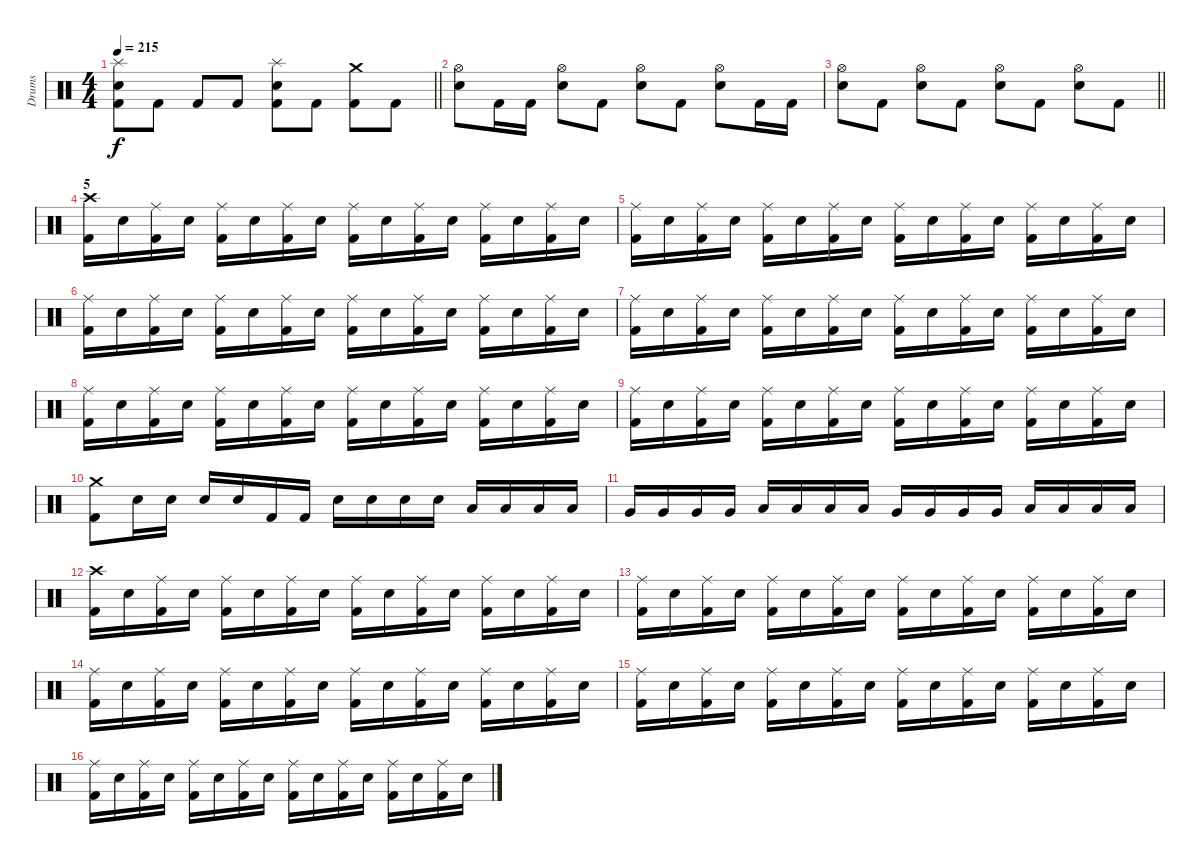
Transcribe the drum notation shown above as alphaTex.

\track ("Drums" "Drums") {instrument percussion}
\staff {score}
\articulation defaults
\ts (4 4)
\tempo 215
\clef neutral
\barLineRight lightlight
\ks c
("Splash (hit)" "Electric Snare (hit)" "Kick (hit) 2").8{dy f} "Kick (hit) 2".8 "Kick (hit) 2".8 "Kick (hit) 2".8 ("Splash (hit)" "Electric Snare (hit)" "Kick (hit) 2").8 "Kick (hit) 2".8 ("Crash medium (hit)" "Kick (hit) 2").8 "Kick (hit) 2".8 |
("Hi-Hat (open)" "Electric Snare (hit)").8 "Kick (hit) 2".16 "Kick (hit) 2".16 ("Hi-Hat (open)" "Electric Snare (hit)").8 "Kick (hit) 2".8 ("Hi-Hat (open)" "Electric Snare (hit)").8 "Kick (hit) 2".8 ("Hi-Hat (open)" "Electric Snare (hit)").8 "Kick (hit) 2".16 "Kick (hit) 2".16 |
\barLineRight lightlight
("Hi-Hat (open)" "Electric Snare (hit)").8 "Kick (hit) 2".8 ("Hi-Hat (open)" "Electric Snare (hit)").8 "Kick (hit) 2".8 ("Hi-Hat (open)" "Electric Snare (hit)").8 "Kick (hit) 2".8 ("Hi-Hat (open)" "Electric Snare (hit)").8 "Kick (hit) 2".8 |
\section ("" "5")
("Crash high (hit)" "Kick (hit) 2").16 "Electric Snare (hit)".16 ("Ride (middle)" "Kick (hit) 2").16 "Electric Snare (hit)".16 ("Ride (middle)" "Kick (hit) 2").16 "Electric Snare (hit)".16 ("Ride (middle)" "Kick (hit) 2").16 "Electric Snare (hit)".16 ("Ride (middle)" "Kick (hit) 2").16 "Electric Snare (hit)".16 ("Ride (middle)" "Kick (hit) 2").16 "Electric Snare (hit)".16 ("Ride (middle)" "Kick (hit) 2").16 "Electric Snare (hit)".16 ("Ride (middle)" "Kick (hit) 2").16 "Electric Snare (hit)".16 |
("Ride (middle)" "Kick (hit) 2").16 "Electric Snare (hit)".16 ("Ride (middle)" "Kick (hit) 2").16 "Electric Snare (hit)".16 ("Ride (middle)" "Kick (hit) 2").16 "Electric Snare (hit)".16 ("Ride (middle)" "Kick (hit) 2").16 "Electric Snare (hit)".16 ("Ride (middle)" "Kick (hit) 2").16 "Electric Snare (hit)".16 ("Ride (middle)" "Kick (hit) 2").16 "Electric Snare (hit)".16 ("Ride (middle)" "Kick (hit) 2").16 "Electric Snare (hit)".16 ("Ride (middle)" "Kick (hit) 2").16 "Electric Snare (hit)".16 |
("Ride (middle)" "Kick (hit) 2").16 "Electric Snare (hit)".16 ("Ride (middle)" "Kick (hit) 2").16 "Electric Snare (hit)".16 ("Ride (middle)" "Kick (hit) 2").16 "Electric Snare (hit)".16 ("Ride (middle)" "Kick (hit) 2").16 "Electric Snare (hit)".16 ("Ride (middle)" "Kick (hit) 2").16 "Electric Snare (hit)".16 ("Ride (middle)" "Kick (hit) 2").16 "Electric Snare (hit)".16 ("Ride (middle)" "Kick (hit) 2").16 "Electric Snare (hit)".16 ("Ride (middle)" "Kick (hit) 2").16 "Electric Snare (hit)".16 |
("Ride (middle)" "Kick (hit) 2").16 "Electric Snare (hit)".16 ("Ride (middle)" "Kick (hit) 2").16 "Electric Snare (hit)".16 ("Ride (middle)" "Kick (hit) 2").16 "Electric Snare (hit)".16 ("Ride (middle)" "Kick (hit) 2").16 "Electric Snare (hit)".16 ("Ride (middle)" "Kick (hit) 2").16 "Electric Snare (hit)".16 ("Ride (middle)" "Kick (hit) 2").16 "Electric Snare (hit)".16 ("Ride (middle)" "Kick (hit) 2").16 "Electric Snare (hit)".16 ("Ride (middle)" "Kick (hit) 2").16 "Electric Snare (hit)".16 |
("Ride (middle)" "Kick (hit) 2").16 "Electric Snare (hit)".16 ("Ride (middle)" "Kick (hit) 2").16 "Electric Snare (hit)".16 ("Ride (middle)" "Kick (hit) 2").16 "Electric Snare (hit)".16 ("Ride (middle)" "Kick (hit) 2").16 "Electric Snare (hit)".16 ("Ride (middle)" "Kick (hit) 2").16 "Electric Snare (hit)".16 ("Ride (middle)" "Kick (hit) 2").16 "Electric Snare (hit)".16 ("Ride (middle)" "Kick (hit) 2").16 "Electric Snare (hit)".16 ("Ride (middle)" "Kick (hit) 2").16 "Electric Snare (hit)".16 |
("Ride (middle)" "Kick (hit) 2").16 "Electric Snare (hit)".16 ("Ride (middle)" "Kick (hit) 2").16 "Electric Snare (hit)".16 ("Ride (middle)" "Kick (hit) 2").16 "Electric Snare (hit)".16 ("Ride (middle)" "Kick (hit) 2").16 "Electric Snare (hit)".16 ("Ride (middle)" "Kick (hit) 2").16 "Electric Snare (hit)".16 ("Ride (middle)" "Kick (hit) 2").16 "Electric Snare (hit)".16 ("Ride (middle)" "Kick (hit) 2").16 "Electric Snare (hit)".16 ("Ride (middle)" "Kick (hit) 2").16 "Electric Snare (hit)".16 |
("Crash medium (hit)" "Kick (hit) 2").8 "Electric Snare (hit)".16 "Electric Snare (hit)".16 "Electric Snare (hit)".16 "Electric Snare (hit)".16 "Kick (hit) 2".16 "Kick (hit) 2".16 "Electric Snare (hit)".16 "Electric Snare (hit)".16 "Electric Snare (hit)".16 "Electric Snare (hit)".16 "Low Tom (hit)".16 "Low Tom (hit)".16 "Low Tom (hit)".16 "Low Tom (hit)".16 |
"Very Low Tom (hit)".16 "Very Low Tom (hit)".16 "Very Low Tom (hit)".16 "Very Low Tom (hit)".16 "Low Tom (hit)".16 "Low Tom (hit)".16 "Low Tom (hit)".16 "Low Tom (hit)".16 "Very Low Tom (hit)".16 "Very Low Tom (hit)".16 "Very Low Tom (hit)".16 "Very Low Tom (hit)".16 "Low Floor Tom (hit)".16 "Low Floor Tom (hit)".16 "Low Floor Tom (hit)".16 "Low Floor Tom (hit)".16 |
("Crash high (hit)" "Kick (hit) 2").16 "Electric Snare (hit)".16 ("Ride (middle)" "Kick (hit) 2").16 "Electric Snare (hit)".16 ("Ride (middle)" "Kick (hit) 2").16 "Electric Snare (hit)".16 ("Ride (middle)" "Kick (hit) 2").16 "Electric Snare (hit)".16 ("Ride (middle)" "Kick (hit) 2").16 "Electric Snare (hit)".16 ("Ride (middle)" "Kick (hit) 2").16 "Electric Snare (hit)".16 ("Ride (middle)" "Kick (hit) 2").16 "Electric Snare (hit)".16 ("Ride (middle)" "Kick (hit) 2").16 "Electric Snare (hit)".16 |
("Ride (middle)" "Kick (hit) 2").16 "Electric Snare (hit)".16 ("Ride (middle)" "Kick (hit) 2").16 "Electric Snare (hit)".16 ("Ride (middle)" "Kick (hit) 2").16 "Electric Snare (hit)".16 ("Ride (middle)" "Kick (hit) 2").16 "Electric Snare (hit)".16 ("Ride (middle)" "Kick (hit) 2").16 "Electric Snare (hit)".16 ("Ride (middle)" "Kick (hit) 2").16 "Electric Snare (hit)".16 ("Ride (middle)" "Kick (hit) 2").16 "Electric Snare (hit)".16 ("Ride (middle)" "Kick (hit) 2").16 "Electric Snare (hit)".16 |
("Ride (middle)" "Kick (hit) 2").16 "Electric Snare (hit)".16 ("Ride (middle)" "Kick (hit) 2").16 "Electric Snare (hit)".16 ("Ride (middle)" "Kick (hit) 2").16 "Electric Snare (hit)".16 ("Ride (middle)" "Kick (hit) 2").16 "Electric Snare (hit)".16 ("Ride (middle)" "Kick (hit) 2").16 "Electric Snare (hit)".16 ("Ride (middle)" "Kick (hit) 2").16 "Electric Snare (hit)".16 ("Ride (middle)" "Kick (hit) 2").16 "Electric Snare (hit)".16 ("Ride (middle)" "Kick (hit) 2").16 "Electric Snare (hit)".16 |
("Ride (middle)" "Kick (hit) 2").16 "Electric Snare (hit)".16 ("Ride (middle)" "Kick (hit) 2").16 "Electric Snare (hit)".16 ("Ride (middle)" "Kick (hit) 2").16 "Electric Snare (hit)".16 ("Ride (middle)" "Kick (hit) 2").16 "Electric Snare (hit)".16 ("Ride (middle)" "Kick (hit) 2").16 "Electric Snare (hit)".16 ("Ride (middle)" "Kick (hit) 2").16 "Electric Snare (hit)".16 ("Ride (middle)" "Kick (hit) 2").16 "Electric Snare (hit)".16 ("Ride (middle)" "Kick (hit) 2").16 "Electric Snare (hit)".16 |
("Ride (middle)" "Kick (hit) 2").16 "Electric Snare (hit)".16 ("Ride (middle)" "Kick (hit) 2").16 "Electric Snare (hit)".16 ("Ride (middle)" "Kick (hit) 2").16 "Electric Snare (hit)".16 ("Ride (middle)" "Kick (hit) 2").16 "Electric Snare (hit)".16 ("Ride (middle)" "Kick (hit) 2").16 "Electric Snare (hit)".16 ("Ride (middle)" "Kick (hit) 2").16 "Electric Snare (hit)".16 ("Ride (middle)" "Kick (hit) 2").16 "Electric Snare (hit)".16 ("Ride (middle)" "Kick (hit) 2").16 "Electric Snare (hit)".16
